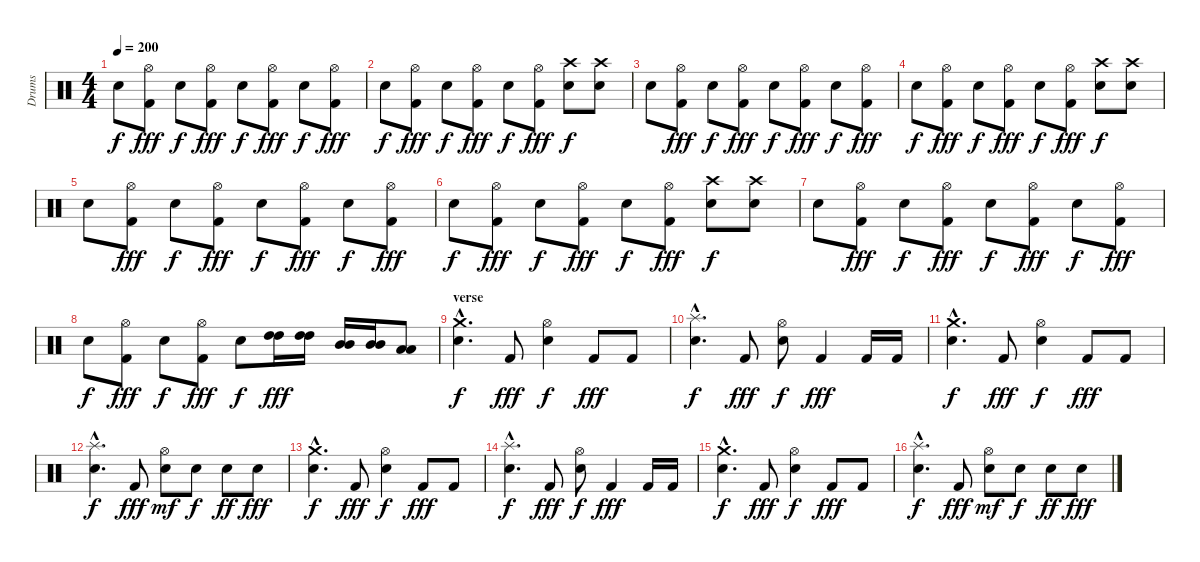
\track ("Drums" "Drums") {instrument percussion}
\staff {score}
\articulation defaults
\ts (4 4)
\tempo 200
\clef neutral
\ks c "Electric Snare (hit)".8{dy f}
("Hi-Hat (open)" "Kick (hit) 2").8{dy fff} "Electric Snare (hit)".8{dy f} ("Hi-Hat (open)" "Kick (hit) 2").8{dy fff} "Electric Snare (hit)".8{dy f} ("Hi-Hat (open)" "Kick (hit) 2").8{dy fff} "Electric Snare (hit)".8{dy f} ("Hi-Hat (open)" "Kick (hit) 2").8{dy fff} |
"Electric Snare (hit)".8{dy f} ("Hi-Hat (open)" "Kick (hit) 2").8{dy fff} "Electric Snare (hit)".8{dy f} ("Hi-Hat (open)" "Kick (hit) 2").8{dy fff} "Electric Snare (hit)".8{dy f} ("Hi-Hat (open)" "Kick (hit) 2").8{dy fff} ("Crash high (hit)" "Electric Snare (hit)").8{dy f} ("Crash high (hit)" "Electric Snare (hit)").8 |
"Electric Snare (hit)".8 ("Hi-Hat (open)" "Kick (hit) 2").8{dy fff} "Electric Snare (hit)".8{dy f} ("Hi-Hat (open)" "Kick (hit) 2").8{dy fff} "Electric Snare (hit)".8{dy f} ("Hi-Hat (open)" "Kick (hit) 2").8{dy fff} "Electric Snare (hit)".8{dy f} ("Hi-Hat (open)" "Kick (hit) 2").8{dy fff} |
"Electric Snare (hit)".8{dy f} ("Hi-Hat (open)" "Kick (hit) 2").8{dy fff} "Electric Snare (hit)".8{dy f} ("Hi-Hat (open)" "Kick (hit) 2").8{dy fff} "Electric Snare (hit)".8{dy f} ("Hi-Hat (open)" "Kick (hit) 2").8{dy fff} ("Crash high (hit)" "Electric Snare (hit)").8{dy f} ("Crash high (hit)" "Electric Snare (hit)").8 |
"Electric Snare (hit)".8 ("Hi-Hat (open)" "Kick (hit) 2").8{dy fff} "Electric Snare (hit)".8{dy f} ("Hi-Hat (open)" "Kick (hit) 2").8{dy fff} "Electric Snare (hit)".8{dy f} ("Hi-Hat (open)" "Kick (hit) 2").8{dy fff} "Electric Snare (hit)".8{dy f} ("Hi-Hat (open)" "Kick (hit) 2").8{dy fff} |
"Electric Snare (hit)".8{dy f} ("Hi-Hat (open)" "Kick (hit) 2").8{dy fff} "Electric Snare (hit)".8{dy f} ("Hi-Hat (open)" "Kick (hit) 2").8{dy fff} "Electric Snare (hit)".8{dy f} ("Hi-Hat (open)" "Kick (hit) 2").8{dy fff} ("Crash high (hit)" "Electric Snare (hit)").8{dy f} ("Crash high (hit)" "Electric Snare (hit)").8 |
"Electric Snare (hit)".8 ("Hi-Hat (open)" "Kick (hit) 2").8{dy fff} "Electric Snare (hit)".8{dy f} ("Hi-Hat (open)" "Kick (hit) 2").8{dy fff} "Electric Snare (hit)".8{dy f} ("Hi-Hat (open)" "Kick (hit) 2").8{dy fff} "Electric Snare (hit)".8{dy f} ("Hi-Hat (open)" "Kick (hit) 2").8{dy fff} |
"Electric Snare (hit)".8{dy f} ("Hi-Hat (open)" "Kick (hit) 2").8{dy fff} "Electric Snare (hit)".8{dy f} ("Hi-Hat (open)" "Kick (hit) 2").8{dy fff} "Electric Snare (hit)".8{dy f} ("High Tom (hit)" "High Tom (hit)").16{dy fff} ("High Tom (hit)" "High Tom (hit)").16 ("Mid Tom (hit)" "Mid Tom (hit)").16 ("Mid Tom (hit)" "Mid Tom (hit)").16 ("Low Tom (hit)" "Low Tom (hit)").8 |
\section ("" "verse")
("Electric Snare (hit)"{hac} "Crash medium (hit)"{hac}).4{d dy f} "Kick (hit) 2".8{dy fff} ("Hi-Hat (open)" "Electric Snare (hit)").4{dy f} "Kick (hit) 2".8{dy fff} "Kick (hit) 2".8 |
("Splash (hit)"{hac} "Electric Snare (hit)"{hac}).4{d dy f} "Kick (hit) 2".8{dy fff} ("Hi-Hat (open)" "Electric Snare (hit)").8{dy f} "Kick (hit) 2".4{dy fff} "Kick (hit) 2".16 "Kick (hit) 2".16 |
("Electric Snare (hit)"{hac} "Crash medium (hit)"{hac}).4{d dy f} "Kick (hit) 2".8{dy fff} ("Hi-Hat (open)" "Electric Snare (hit)").4{dy f} "Kick (hit) 2".8{dy fff} "Kick (hit) 2".8 |
("Splash (hit)"{hac} "Electric Snare (hit)"{hac}).4{d dy f} "Kick (hit) 2".8{dy fff} ("Hi-Hat (open)" "Electric Snare (hit)").8{dy mf} "Electric Snare (hit)".8{dy f} "Electric Snare (hit)".8{dy ff} "Electric Snare (hit)".8{dy fff} |
("Electric Snare (hit)"{hac} "Crash medium (hit)"{hac}).4{d dy f} "Kick (hit) 2".8{dy fff} ("Hi-Hat (open)" "Electric Snare (hit)").4{dy f} "Kick (hit) 2".8{dy fff} "Kick (hit) 2".8 |
("Splash (hit)"{hac} "Electric Snare (hit)"{hac}).4{d dy f} "Kick (hit) 2".8{dy fff} ("Hi-Hat (open)" "Electric Snare (hit)").8{dy f} "Kick (hit) 2".4{dy fff} "Kick (hit) 2".16 "Kick (hit) 2".16 |
("Electric Snare (hit)"{hac} "Crash medium (hit)"{hac}).4{d dy f} "Kick (hit) 2".8{dy fff} ("Hi-Hat (open)" "Electric Snare (hit)").4{dy f} "Kick (hit) 2".8{dy fff} "Kick (hit) 2".8 |
("Splash (hit)"{hac} "Electric Snare (hit)"{hac}).4{d dy f} "Kick (hit) 2".8{dy fff} ("Hi-Hat (open)" "Electric Snare (hit)").8{dy mf} "Electric Snare (hit)".8{dy f} "Electric Snare (hit)".8{dy ff} "Electric Snare (hit)".8{dy fff}
